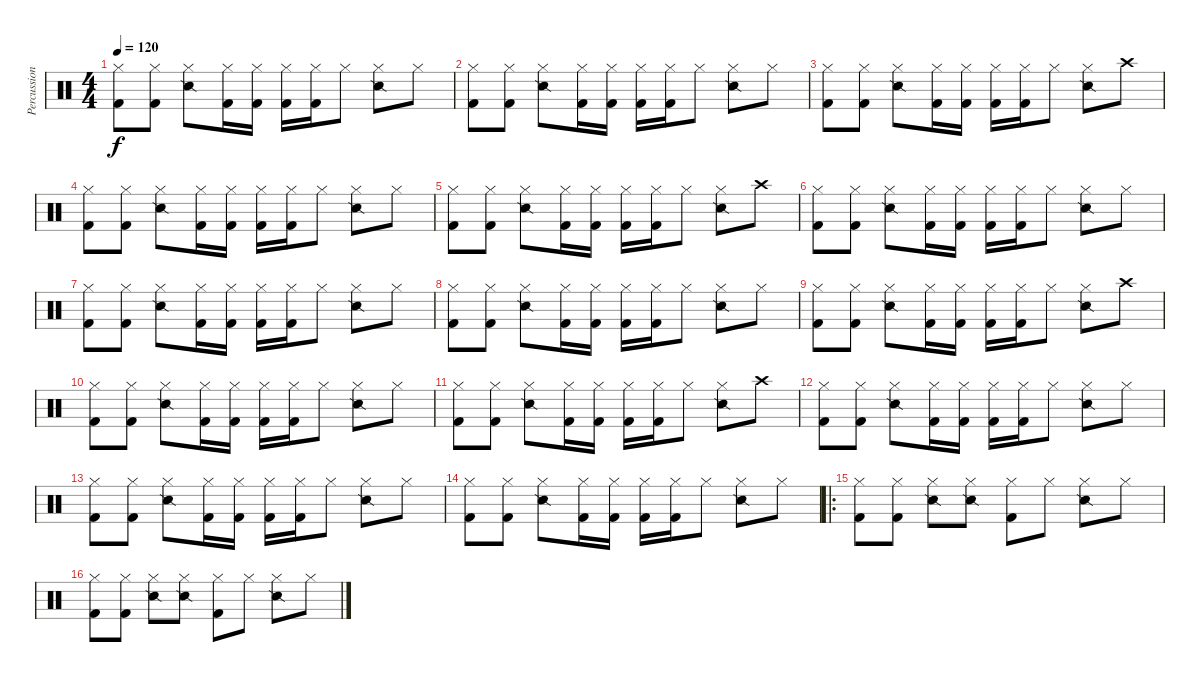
\track ("Percussion" "Percussion") {instrument percussion}
\staff {score}
\articulation defaults
\ts (4 4)
\tempo 120
\clef neutral
\ks c
("Hi-Hat (closed)" "Kick (hit) 2").8{dy f} ("Hi-Hat (closed)" "Kick (hit) 2").8 ("Hi-Hat (closed)" "Snare (side stick) 2").8 ("Hi-Hat (closed)" "Kick (hit) 2").16 ("Hi-Hat (closed)" "Kick (hit) 2").16 ("Hi-Hat (closed)" "Kick (hit) 2").16 ("Hi-Hat (closed)" "Kick (hit) 2").16 "Hi-Hat (closed)".8 ("Hi-Hat (closed)" "Snare (side stick) 2").8 "Hi-Hat (closed)".8 |
("Hi-Hat (closed)" "Kick (hit) 2").8 ("Hi-Hat (closed)" "Kick (hit) 2").8 ("Hi-Hat (closed)" "Snare (side stick) 2").8 ("Hi-Hat (closed)" "Kick (hit) 2").16 ("Hi-Hat (closed)" "Kick (hit) 2").16 ("Hi-Hat (closed)" "Kick (hit) 2").16 ("Hi-Hat (closed)" "Kick (hit) 2").16 "Hi-Hat (closed)".8 ("Hi-Hat (closed)" "Snare (side stick) 2").8 "Hi-Hat (closed)".8 |
("Hi-Hat (closed)" "Kick (hit) 2").8 ("Hi-Hat (closed)" "Kick (hit) 2").8 ("Hi-Hat (closed)" "Snare (side stick) 2").8 ("Hi-Hat (closed)" "Kick (hit) 2").16 ("Hi-Hat (closed)" "Kick (hit) 2").16 ("Hi-Hat (closed)" "Kick (hit) 2").16 ("Hi-Hat (closed)" "Kick (hit) 2").16 "Hi-Hat (closed)".8 ("Hi-Hat (closed)" "Snare (side stick) 2").8 "Crash high (hit)".8 |
("Hi-Hat (closed)" "Kick (hit) 2").8 ("Hi-Hat (closed)" "Kick (hit) 2").8 ("Hi-Hat (closed)" "Snare (side stick) 2").8 ("Hi-Hat (closed)" "Kick (hit) 2").16 ("Hi-Hat (closed)" "Kick (hit) 2").16 ("Hi-Hat (closed)" "Kick (hit) 2").16 ("Hi-Hat (closed)" "Kick (hit) 2").16 "Hi-Hat (closed)".8 ("Hi-Hat (closed)" "Snare (side stick) 2").8 "Hi-Hat (closed)".8 |
("Hi-Hat (closed)" "Kick (hit) 2").8 ("Hi-Hat (closed)" "Kick (hit) 2").8 ("Hi-Hat (closed)" "Snare (side stick) 2").8 ("Hi-Hat (closed)" "Kick (hit) 2").16 ("Hi-Hat (closed)" "Kick (hit) 2").16 ("Hi-Hat (closed)" "Kick (hit) 2").16 ("Hi-Hat (closed)" "Kick (hit) 2").16 "Hi-Hat (closed)".8 ("Hi-Hat (closed)" "Snare (side stick) 2").8 "Crash high (hit)".8 |
("Hi-Hat (closed)" "Kick (hit) 2").8 ("Hi-Hat (closed)" "Kick (hit) 2").8 ("Hi-Hat (closed)" "Snare (side stick) 2").8 ("Hi-Hat (closed)" "Kick (hit) 2").16 ("Hi-Hat (closed)" "Kick (hit) 2").16 ("Hi-Hat (closed)" "Kick (hit) 2").16 ("Hi-Hat (closed)" "Kick (hit) 2").16 "Hi-Hat (closed)".8 ("Hi-Hat (closed)" "Snare (side stick) 2").8 "Hi-Hat (closed)".8 |
("Hi-Hat (closed)" "Kick (hit) 2").8 ("Hi-Hat (closed)" "Kick (hit) 2").8 ("Hi-Hat (closed)" "Snare (side stick) 2").8 ("Hi-Hat (closed)" "Kick (hit) 2").16 ("Hi-Hat (closed)" "Kick (hit) 2").16 ("Hi-Hat (closed)" "Kick (hit) 2").16 ("Hi-Hat (closed)" "Kick (hit) 2").16 "Hi-Hat (closed)".8 ("Hi-Hat (closed)" "Snare (side stick) 2").8 "Hi-Hat (closed)".8 |
("Hi-Hat (closed)" "Kick (hit) 2").8 ("Hi-Hat (closed)" "Kick (hit) 2").8 ("Hi-Hat (closed)" "Snare (side stick) 2").8 ("Hi-Hat (closed)" "Kick (hit) 2").16 ("Hi-Hat (closed)" "Kick (hit) 2").16 ("Hi-Hat (closed)" "Kick (hit) 2").16 ("Hi-Hat (closed)" "Kick (hit) 2").16 "Hi-Hat (closed)".8 ("Hi-Hat (closed)" "Snare (side stick) 2").8 "Hi-Hat (closed)".8 |
("Hi-Hat (closed)" "Kick (hit) 2").8 ("Hi-Hat (closed)" "Kick (hit) 2").8 ("Hi-Hat (closed)" "Snare (side stick) 2").8 ("Hi-Hat (closed)" "Kick (hit) 2").16 ("Hi-Hat (closed)" "Kick (hit) 2").16 ("Hi-Hat (closed)" "Kick (hit) 2").16 ("Hi-Hat (closed)" "Kick (hit) 2").16 "Hi-Hat (closed)".8 ("Hi-Hat (closed)" "Snare (side stick) 2").8 "Crash high (hit)".8 |
("Hi-Hat (closed)" "Kick (hit) 2").8 ("Hi-Hat (closed)" "Kick (hit) 2").8 ("Hi-Hat (closed)" "Snare (side stick) 2").8 ("Hi-Hat (closed)" "Kick (hit) 2").16 ("Hi-Hat (closed)" "Kick (hit) 2").16 ("Hi-Hat (closed)" "Kick (hit) 2").16 ("Hi-Hat (closed)" "Kick (hit) 2").16 "Hi-Hat (closed)".8 ("Hi-Hat (closed)" "Snare (side stick) 2").8 "Hi-Hat (closed)".8 |
("Hi-Hat (closed)" "Kick (hit) 2").8 ("Hi-Hat (closed)" "Kick (hit) 2").8 ("Hi-Hat (closed)" "Snare (side stick) 2").8 ("Hi-Hat (closed)" "Kick (hit) 2").16 ("Hi-Hat (closed)" "Kick (hit) 2").16 ("Hi-Hat (closed)" "Kick (hit) 2").16 ("Hi-Hat (closed)" "Kick (hit) 2").16 "Hi-Hat (closed)".8 ("Hi-Hat (closed)" "Snare (side stick) 2").8 "Crash high (hit)".8 |
("Hi-Hat (closed)" "Kick (hit) 2").8 ("Hi-Hat (closed)" "Kick (hit) 2").8 ("Hi-Hat (closed)" "Snare (side stick) 2").8 ("Hi-Hat (closed)" "Kick (hit) 2").16 ("Hi-Hat (closed)" "Kick (hit) 2").16 ("Hi-Hat (closed)" "Kick (hit) 2").16 ("Hi-Hat (closed)" "Kick (hit) 2").16 "Hi-Hat (closed)".8 ("Hi-Hat (closed)" "Snare (side stick) 2").8 "Hi-Hat (closed)".8 |
("Hi-Hat (closed)" "Kick (hit) 2").8 ("Hi-Hat (closed)" "Kick (hit) 2").8 ("Hi-Hat (closed)" "Snare (side stick) 2").8 ("Hi-Hat (closed)" "Kick (hit) 2").16 ("Hi-Hat (closed)" "Kick (hit) 2").16 ("Hi-Hat (closed)" "Kick (hit) 2").16 ("Hi-Hat (closed)" "Kick (hit) 2").16 "Hi-Hat (closed)".8 ("Hi-Hat (closed)" "Snare (side stick) 2").8 "Hi-Hat (closed)".8 |
("Hi-Hat (closed)" "Kick (hit) 2").8 ("Hi-Hat (closed)" "Kick (hit) 2").8 ("Hi-Hat (closed)" "Snare (side stick) 2").8 ("Hi-Hat (closed)" "Kick (hit) 2").16 ("Hi-Hat (closed)" "Kick (hit) 2").16 ("Hi-Hat (closed)" "Kick (hit) 2").16 ("Hi-Hat (closed)" "Kick (hit) 2").16 "Hi-Hat (closed)".8 ("Hi-Hat (closed)" "Snare (side stick) 2").8 "Hi-Hat (closed)".8 |
\ro
("Hi-Hat (closed)" "Kick (hit) 2").8 ("Hi-Hat (closed)" "Kick (hit) 2").8 ("Hi-Hat (closed)" "Snare (side stick) 2").8 ("Hi-Hat (closed)" "Snare (side stick) 2").8 ("Hi-Hat (closed)" "Kick (hit) 2").8 "Hi-Hat (closed)".8 ("Hi-Hat (closed)" "Snare (side stick) 2").8 "Hi-Hat (closed)".8 |
("Hi-Hat (closed)" "Kick (hit) 2").8 ("Hi-Hat (closed)" "Kick (hit) 2").8 ("Hi-Hat (closed)" "Snare (side stick) 2").8 ("Hi-Hat (closed)" "Snare (side stick) 2").8 ("Hi-Hat (closed)" "Kick (hit) 2").8 "Hi-Hat (closed)".8 ("Hi-Hat (closed)" "Snare (side stick) 2").8 "Hi-Hat (closed)".8
